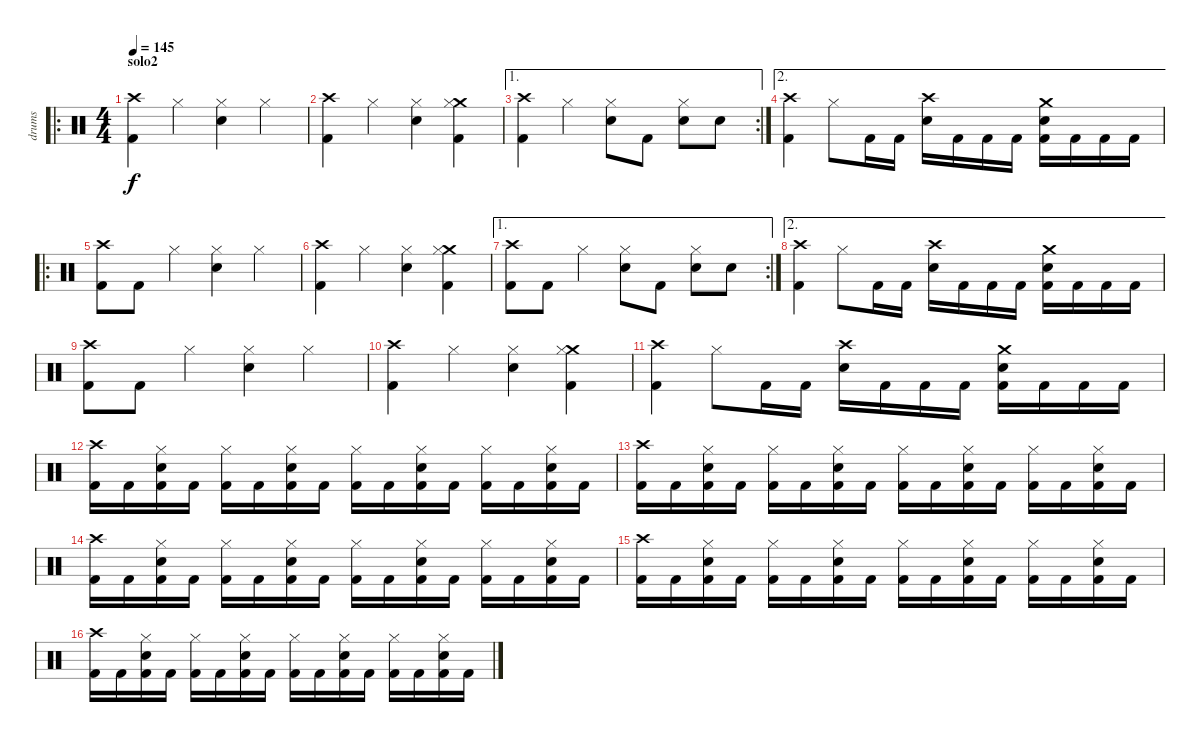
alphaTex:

\track ("drums" "drums") {instrument percussion}
\staff {score}
\articulation defaults
\ro
\ts (4 4)
\section ("" "solo2")
\tempo 145
\clef neutral
\ks c
("Crash high (hit)" "Kick (hit) 2").4{dy f} "Hi-Hat (closed)".4 ("Snare (hit) 2" "Hi-Hat (closed)").4 "Hi-Hat (closed)".4 |
("Crash high (hit)" "Kick (hit) 2").4 "Hi-Hat (closed)".4 ("Snare (hit) 2" "Hi-Hat (closed)").4 ("Crash medium (hit)" "Kick (hit) 2" "Hi-Hat (closed)").4 |
\ae 1
\rc 2
("Crash high (hit)" "Kick (hit) 2").4 "Hi-Hat (closed)".4 ("Snare (hit) 2" "Hi-Hat (closed)").8 "Kick (hit) 2".8 ("Snare (hit) 2" "Hi-Hat (closed)").8 "Snare (hit) 2".8 |
\ae 2
("Crash high (hit)" "Kick (hit) 2").4 "Hi-Hat (closed)".8 "Kick (hit) 2".16 "Kick (hit) 2".16 ("Crash high (hit)" "Snare (hit) 2").16 "Kick (hit) 2".16 "Kick (hit) 2".16 "Kick (hit) 2".16 ("Crash medium (hit)" "Snare (hit) 2" "Kick (hit) 2").16 "Kick (hit) 2".16 "Kick (hit) 2".16 "Kick (hit) 2".16 |
\ro
("Crash high (hit)" "Kick (hit) 2").8 "Kick (hit) 2".8 "Hi-Hat (closed)".4 ("Snare (hit) 2" "Hi-Hat (closed)").4 "Hi-Hat (closed)".4 |
("Crash high (hit)" "Kick (hit) 2").4 "Hi-Hat (closed)".4 ("Snare (hit) 2" "Hi-Hat (closed)").4 ("Crash medium (hit)" "Kick (hit) 2" "Hi-Hat (closed)").4 |
\ae 1
\rc 2
("Crash high (hit)" "Kick (hit) 2").8 "Kick (hit) 2".8 "Hi-Hat (closed)".4 ("Snare (hit) 2" "Hi-Hat (closed)").8 "Kick (hit) 2".8 ("Snare (hit) 2" "Hi-Hat (closed)").8 "Snare (hit) 2".8 |
\ae 2
("Crash high (hit)" "Kick (hit) 2").4 "Hi-Hat (closed)".8 "Kick (hit) 2".16 "Kick (hit) 2".16 ("Crash high (hit)" "Snare (hit) 2").16 "Kick (hit) 2".16 "Kick (hit) 2".16 "Kick (hit) 2".16 ("Crash medium (hit)" "Snare (hit) 2" "Kick (hit) 2").16 "Kick (hit) 2".16 "Kick (hit) 2".16 "Kick (hit) 2".16 |
("Crash high (hit)" "Kick (hit) 2").8 "Kick (hit) 2".8 "Hi-Hat (closed)".4 ("Snare (hit) 2" "Hi-Hat (closed)").4 "Hi-Hat (closed)".4 |
("Crash high (hit)" "Kick (hit) 2").4 "Hi-Hat (closed)".4 ("Snare (hit) 2" "Hi-Hat (closed)").4 ("Crash medium (hit)" "Kick (hit) 2" "Hi-Hat (closed)").4 |
("Crash high (hit)" "Kick (hit) 2").4 "Hi-Hat (closed)".8 "Kick (hit) 2".16 "Kick (hit) 2".16 ("Crash high (hit)" "Snare (hit) 2").16 "Kick (hit) 2".16 "Kick (hit) 2".16 "Kick (hit) 2".16 ("Crash medium (hit)" "Snare (hit) 2" "Kick (hit) 2").16 "Kick (hit) 2".16 "Kick (hit) 2".16 "Kick (hit) 2".16 |
("Crash high (hit)" "Kick (hit) 2").16 "Kick (hit) 2".16 ("Snare (hit) 2" "Kick (hit) 2" "Hi-Hat (closed)").16 "Kick (hit) 2".16 ("Kick (hit) 2" "Hi-Hat (closed)").16 "Kick (hit) 2".16 ("Snare (hit) 2" "Kick (hit) 2" "Hi-Hat (closed)").16 "Kick (hit) 2".16 ("Kick (hit) 2" "Hi-Hat (closed)").16 "Kick (hit) 2".16 ("Snare (hit) 2" "Kick (hit) 2" "Hi-Hat (closed)").16 "Kick (hit) 2".16 ("Kick (hit) 2" "Hi-Hat (closed)").16 "Kick (hit) 2".16 ("Snare (hit) 2" "Kick (hit) 2" "Hi-Hat (closed)").16 "Kick (hit) 2".16 |
("Crash high (hit)" "Kick (hit) 2").16 "Kick (hit) 2".16 ("Snare (hit) 2" "Kick (hit) 2" "Hi-Hat (closed)").16 "Kick (hit) 2".16 ("Kick (hit) 2" "Hi-Hat (closed)").16 "Kick (hit) 2".16 ("Snare (hit) 2" "Kick (hit) 2" "Hi-Hat (closed)").16 "Kick (hit) 2".16 ("Kick (hit) 2" "Hi-Hat (closed)").16 "Kick (hit) 2".16 ("Snare (hit) 2" "Kick (hit) 2" "Hi-Hat (closed)").16 "Kick (hit) 2".16 ("Kick (hit) 2" "Hi-Hat (closed)").16 "Kick (hit) 2".16 ("Snare (hit) 2" "Kick (hit) 2" "Hi-Hat (closed)").16 "Kick (hit) 2".16 |
("Crash high (hit)" "Kick (hit) 2").16 "Kick (hit) 2".16 ("Snare (hit) 2" "Kick (hit) 2" "Hi-Hat (closed)").16 "Kick (hit) 2".16 ("Kick (hit) 2" "Hi-Hat (closed)").16 "Kick (hit) 2".16 ("Snare (hit) 2" "Kick (hit) 2" "Hi-Hat (closed)").16 "Kick (hit) 2".16 ("Kick (hit) 2" "Hi-Hat (closed)").16 "Kick (hit) 2".16 ("Snare (hit) 2" "Kick (hit) 2" "Hi-Hat (closed)").16 "Kick (hit) 2".16 ("Kick (hit) 2" "Hi-Hat (closed)").16 "Kick (hit) 2".16 ("Snare (hit) 2" "Kick (hit) 2" "Hi-Hat (closed)").16 "Kick (hit) 2".16 |
("Crash high (hit)" "Kick (hit) 2").16 "Kick (hit) 2".16 ("Snare (hit) 2" "Kick (hit) 2" "Hi-Hat (closed)").16 "Kick (hit) 2".16 ("Kick (hit) 2" "Hi-Hat (closed)").16 "Kick (hit) 2".16 ("Snare (hit) 2" "Kick (hit) 2" "Hi-Hat (closed)").16 "Kick (hit) 2".16 ("Kick (hit) 2" "Hi-Hat (closed)").16 "Kick (hit) 2".16 ("Snare (hit) 2" "Kick (hit) 2" "Hi-Hat (closed)").16 "Kick (hit) 2".16 ("Kick (hit) 2" "Hi-Hat (closed)").16 "Kick (hit) 2".16 ("Snare (hit) 2" "Kick (hit) 2" "Hi-Hat (closed)").16 "Kick (hit) 2".16 |
("Crash high (hit)" "Kick (hit) 2").16 "Kick (hit) 2".16 ("Snare (hit) 2" "Kick (hit) 2" "Hi-Hat (closed)").16 "Kick (hit) 2".16 ("Kick (hit) 2" "Hi-Hat (closed)").16 "Kick (hit) 2".16 ("Snare (hit) 2" "Kick (hit) 2" "Hi-Hat (closed)").16 "Kick (hit) 2".16 ("Kick (hit) 2" "Hi-Hat (closed)").16 "Kick (hit) 2".16 ("Snare (hit) 2" "Kick (hit) 2" "Hi-Hat (closed)").16 "Kick (hit) 2".16 ("Kick (hit) 2" "Hi-Hat (closed)").16 "Kick (hit) 2".16 ("Snare (hit) 2" "Kick (hit) 2" "Hi-Hat (closed)").16 "Kick (hit) 2".16
